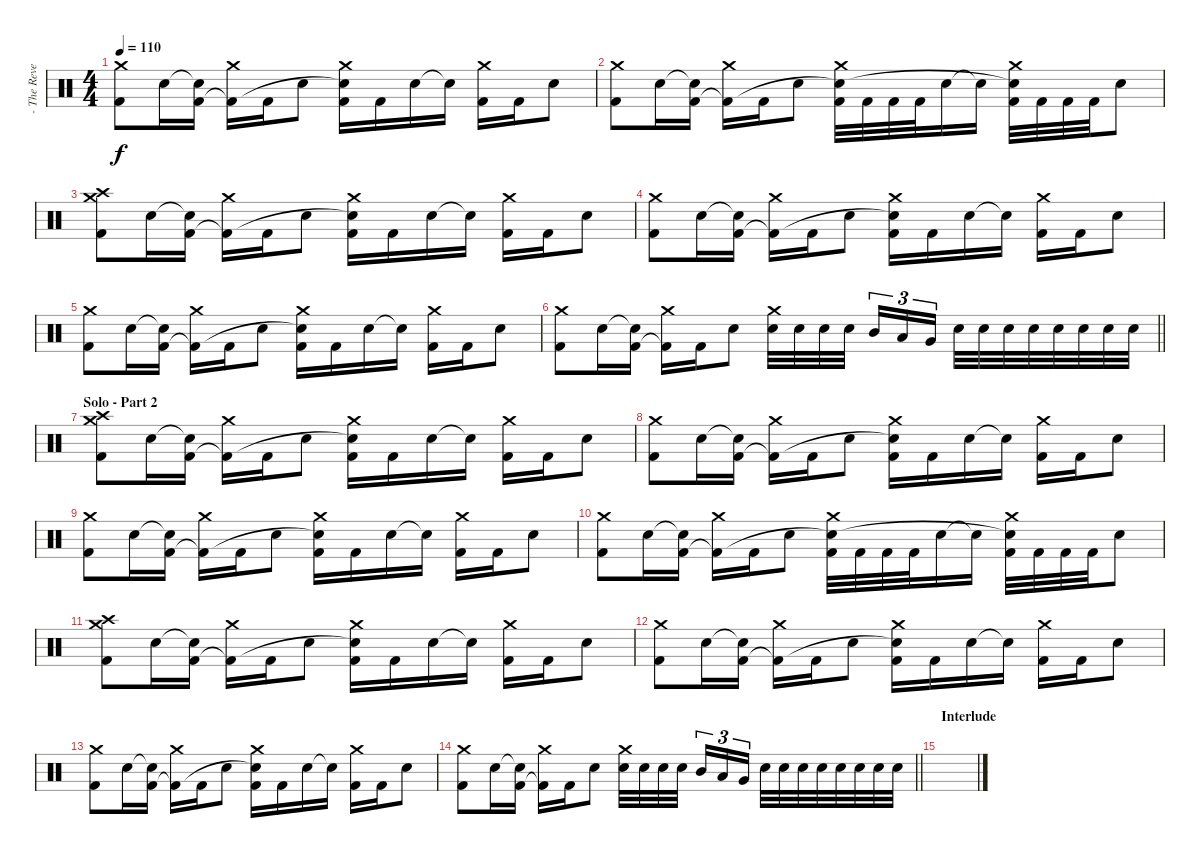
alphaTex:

\track ("- The Reverend - Drums" "- The Reve") {instrument percussion}
\staff {score}
\articulation defaults
\ts (4 4)
\tempo 110
\clef neutral
\ks c
("Crash medium (hit)" "Kick (hit) 2").8{dy f} "Snare (hit) 2".16 ("Snare (hit)"{t} "Kick (hit) 2").16 ("Crash medium (hit)" "Kick (hit) 2"{t}).16 "Kick (hit) 2".16 "Snare (hit) 2".8 ("Crash medium (hit)" "Snare (hit) 2"{t} "Kick (hit) 2").16 "Kick (hit) 2".16 "Snare (hit) 2".16 "Snare (hit) 2"{t}.16 ("Crash medium (hit)" "Kick (hit) 2").16 "Kick (hit) 2".16 "Snare (hit) 2".8 |
("Crash medium (hit)" "Kick (hit) 2").8 "Snare (hit) 2".16 ("Snare (hit)"{t} "Kick (hit) 2").16 ("Crash medium (hit)" "Kick (hit) 2"{t}).16 "Kick (hit) 2".16 "Snare (hit) 2".8 ("Crash medium (hit)" "Snare (hit) 2"{t} "Kick (hit) 2").32 "Kick (hit) 2".32 "Kick (hit) 2".32 "Kick (hit) 2".32 "Snare (hit) 2".16 "Snare (hit) 2"{t}.16 ("Crash medium (hit)" "Snare (hit) 2"{t} "Kick (hit) 2").32 "Kick (hit) 2".32 "Kick (hit) 2".32 "Kick (hit) 2".32 "Snare (hit) 2".8 |
("Crash medium (hit)" "Crash high (hit)" "Kick (hit) 2").8 "Snare (hit) 2".16 ("Snare (hit)"{t} "Kick (hit) 2").16 ("Crash medium (hit)" "Kick (hit) 2"{t}).16 "Kick (hit) 2".16 "Snare (hit) 2".8 ("Crash medium (hit)" "Snare (hit) 2"{t} "Kick (hit) 2").16 "Kick (hit) 2".16 "Snare (hit) 2".16 "Snare (hit) 2"{t}.16 ("Crash medium (hit)" "Kick (hit) 2").16 "Kick (hit) 2".16 "Snare (hit) 2".8 |
("Crash medium (hit)" "Kick (hit) 2").8 "Snare (hit) 2".16 ("Snare (hit)"{t} "Kick (hit) 2").16 ("Crash medium (hit)" "Kick (hit) 2"{t}).16 "Kick (hit) 2".16 "Snare (hit) 2".8 ("Crash medium (hit)" "Snare (hit) 2"{t} "Kick (hit) 2").16 "Kick (hit) 2".16 "Snare (hit) 2".16 "Snare (hit) 2"{t}.16 ("Crash medium (hit)" "Kick (hit) 2").16 "Kick (hit) 2".16 "Snare (hit) 2".8 |
("Crash medium (hit)" "Kick (hit) 2").8 "Snare (hit) 2".16 ("Snare (hit)"{t} "Kick (hit) 2").16 ("Crash medium (hit)" "Kick (hit) 2"{t}).16 "Kick (hit) 2".16 "Snare (hit) 2".8 ("Crash medium (hit)" "Snare (hit) 2"{t} "Kick (hit) 2").16 "Kick (hit) 2".16 "Snare (hit) 2".16 "Snare (hit) 2"{t}.16 ("Crash medium (hit)" "Kick (hit) 2").16 "Kick (hit) 2".16 "Snare (hit) 2".8 |
\barLineRight lightlight
("Crash medium (hit)" "Kick (hit) 2").8 "Snare (hit) 2".16 ("Snare (hit)"{t} "Kick (hit) 2").16 ("Crash medium (hit)" "Kick (hit) 2"{t}).16 "Kick (hit) 2".16 "Snare (hit) 2".8 ("Crash medium (hit)" "Electric Snare (hit)").32 "Electric Snare (hit)".32 "Electric Snare (hit)".32 "Electric Snare (hit)".32{beam splitsecondary} "Mid Tom (hit)".16{tu (3 2)} "Low Tom (hit)".16{tu (3 2)} "Very Low Tom (hit)".16{tu (3 2)} "Electric Snare (hit)".32 "Electric Snare (hit)".32 "Electric Snare (hit)".32 "Electric Snare (hit)".32 "Electric Snare (hit)".32 "Electric Snare (hit)".32 "Electric Snare (hit)".32 "Electric Snare (hit)".32 |
\section ("" "Solo - Part 2")
("Crash medium (hit)" "Crash high (hit)" "Kick (hit) 2").8 "Snare (hit) 2".16 ("Snare (hit)"{t} "Kick (hit) 2").16 ("Crash medium (hit)" "Kick (hit) 2"{t}).16 "Kick (hit) 2".16 "Snare (hit) 2".8 ("Crash medium (hit)" "Snare (hit) 2"{t} "Kick (hit) 2").16 "Kick (hit) 2".16 "Snare (hit) 2".16 "Snare (hit) 2"{t}.16 ("Crash medium (hit)" "Kick (hit) 2").16 "Kick (hit) 2".16 "Snare (hit) 2".8 |
("Crash medium (hit)" "Kick (hit) 2").8 "Snare (hit) 2".16 ("Snare (hit)"{t} "Kick (hit) 2").16 ("Crash medium (hit)" "Kick (hit) 2"{t}).16 "Kick (hit) 2".16 "Snare (hit) 2".8 ("Crash medium (hit)" "Snare (hit) 2"{t} "Kick (hit) 2").16 "Kick (hit) 2".16 "Snare (hit) 2".16 "Snare (hit) 2"{t}.16 ("Crash medium (hit)" "Kick (hit) 2").16 "Kick (hit) 2".16 "Snare (hit) 2".8 |
("Crash medium (hit)" "Kick (hit) 2").8 "Snare (hit) 2".16 ("Snare (hit)"{t} "Kick (hit) 2").16 ("Crash medium (hit)" "Kick (hit) 2"{t}).16 "Kick (hit) 2".16 "Snare (hit) 2".8 ("Crash medium (hit)" "Snare (hit) 2"{t} "Kick (hit) 2").16 "Kick (hit) 2".16 "Snare (hit) 2".16 "Snare (hit) 2"{t}.16 ("Crash medium (hit)" "Kick (hit) 2").16 "Kick (hit) 2".16 "Snare (hit) 2".8 |
("Crash medium (hit)" "Kick (hit) 2").8 "Snare (hit) 2".16 ("Snare (hit)"{t} "Kick (hit) 2").16 ("Crash medium (hit)" "Kick (hit) 2"{t}).16 "Kick (hit) 2".16 "Snare (hit) 2".8 ("Crash medium (hit)" "Snare (hit) 2"{t} "Kick (hit) 2").32 "Kick (hit) 2".32 "Kick (hit) 2".32 "Kick (hit) 2".32 "Snare (hit) 2".16 "Snare (hit) 2"{t}.16 ("Crash medium (hit)" "Snare (hit) 2"{t} "Kick (hit) 2").32 "Kick (hit) 2".32 "Kick (hit) 2".32 "Kick (hit) 2".32 "Snare (hit) 2".8 |
("Crash medium (hit)" "Crash high (hit)" "Kick (hit) 2").8 "Snare (hit) 2".16 ("Snare (hit)"{t} "Kick (hit) 2").16 ("Crash medium (hit)" "Kick (hit) 2"{t}).16 "Kick (hit) 2".16 "Snare (hit) 2".8 ("Crash medium (hit)" "Snare (hit) 2"{t} "Kick (hit) 2").16 "Kick (hit) 2".16 "Snare (hit) 2".16 "Snare (hit) 2"{t}.16 ("Crash medium (hit)" "Kick (hit) 2").16 "Kick (hit) 2".16 "Snare (hit) 2".8 |
("Crash medium (hit)" "Kick (hit) 2").8 "Snare (hit) 2".16 ("Snare (hit)"{t} "Kick (hit) 2").16 ("Crash medium (hit)" "Kick (hit) 2"{t}).16 "Kick (hit) 2".16 "Snare (hit) 2".8 ("Crash medium (hit)" "Snare (hit) 2"{t} "Kick (hit) 2").16 "Kick (hit) 2".16 "Snare (hit) 2".16 "Snare (hit) 2"{t}.16 ("Crash medium (hit)" "Kick (hit) 2").16 "Kick (hit) 2".16 "Snare (hit) 2".8 |
("Crash medium (hit)" "Kick (hit) 2").8 "Snare (hit) 2".16 ("Snare (hit)"{t} "Kick (hit) 2").16 ("Crash medium (hit)" "Kick (hit) 2"{t}).16 "Kick (hit) 2".16 "Snare (hit) 2".8 ("Crash medium (hit)" "Snare (hit) 2"{t} "Kick (hit) 2").16 "Kick (hit) 2".16 "Snare (hit) 2".16 "Snare (hit) 2"{t}.16 ("Crash medium (hit)" "Kick (hit) 2").16 "Kick (hit) 2".16 "Snare (hit) 2".8 |
\barLineRight lightlight
("Crash medium (hit)" "Kick (hit) 2").8 "Snare (hit) 2".16 ("Snare (hit)"{t} "Kick (hit) 2").16 ("Crash medium (hit)" "Kick (hit) 2"{t}).16 "Kick (hit) 2".16 "Snare (hit) 2".8 ("Crash medium (hit)" "Electric Snare (hit)").32 "Electric Snare (hit)".32 "Electric Snare (hit)".32 "Electric Snare (hit)".32{beam splitsecondary} "Mid Tom (hit)".16{tu (3 2)} "Low Tom (hit)".16{tu (3 2)} "Very Low Tom (hit)".16{tu (3 2)} "Electric Snare (hit)".32 "Electric Snare (hit)".32 "Electric Snare (hit)".32 "Electric Snare (hit)".32 "Electric Snare (hit)".32 "Electric Snare (hit)".32 "Electric Snare (hit)".32 "Electric Snare (hit)".32 |
\section ("" "Interlude")
